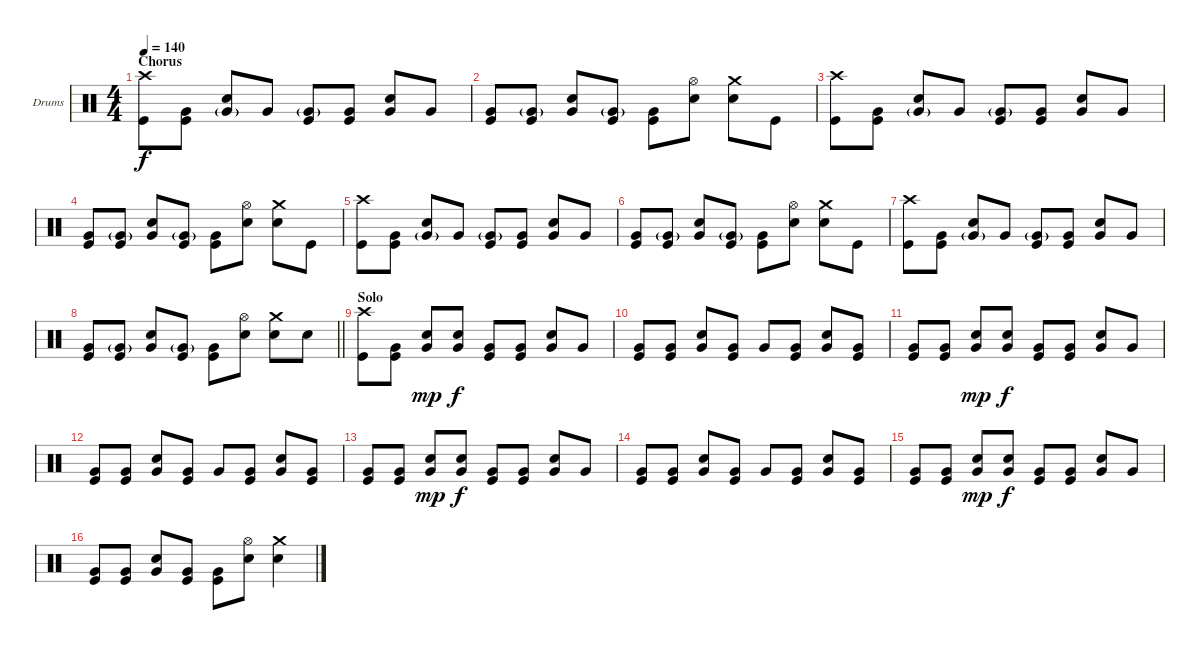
\bracketExtendMode groupsimilarinstruments
\firstSystemTrackNameOrientation horizontal
\otherSystemsTrackNameOrientation horizontal
\track ("Drumkit" "Drums") {instrument percussion}
\staff {score}
\articulation defaults
\ts (4 4)
\section ("" "Chorus")
\tempo 140
\clef neutral
\ks c
("Crash high (hit)" "Kick (hit)").8{dy f} ("Very Low Tom (hit)" "Kick (hit)").8 ("Very Low Tom (hit)"{g} "Snare (hit) 2").8 "Very Low Tom (hit)".8 ("Very Low Tom (hit)"{g} "Kick (hit)").8 ("Very Low Tom (hit)" "Kick (hit)").8 ("Very Low Tom (hit)" "Snare (hit) 2").8 "Very Low Tom (hit)".8 |
("Very Low Tom (hit)" "Kick (hit)").8 ("Very Low Tom (hit)"{g} "Kick (hit)").8 ("Very Low Tom (hit)" "Snare (hit) 2").8 ("Very Low Tom (hit)"{g} "Kick (hit)").8 ("Very Low Tom (hit)" "Kick (hit)").8 ("Hi-Hat (open)" "Snare (hit) 2").8 ("Crash medium (hit)" "Snare (hit) 2").8 "Kick (hit)".8 |
("Crash high (hit)" "Kick (hit)").8 ("Very Low Tom (hit)" "Kick (hit)").8 ("Very Low Tom (hit)"{g} "Snare (hit) 2").8 "Very Low Tom (hit)".8 ("Very Low Tom (hit)"{g} "Kick (hit)").8 ("Very Low Tom (hit)" "Kick (hit)").8 ("Very Low Tom (hit)" "Snare (hit) 2").8 "Very Low Tom (hit)".8 |
("Very Low Tom (hit)" "Kick (hit)").8 ("Very Low Tom (hit)"{g} "Kick (hit)").8 ("Very Low Tom (hit)" "Snare (hit) 2").8 ("Very Low Tom (hit)"{g} "Kick (hit)").8 ("Very Low Tom (hit)" "Kick (hit)").8 ("Hi-Hat (open)" "Snare (hit) 2").8 ("Crash medium (hit)" "Snare (hit) 2").8 "Kick (hit)".8 |
("Crash high (hit)" "Kick (hit)").8 ("Very Low Tom (hit)" "Kick (hit)").8 ("Very Low Tom (hit)"{g} "Snare (hit) 2").8 "Very Low Tom (hit)".8 ("Very Low Tom (hit)"{g} "Kick (hit)").8 ("Very Low Tom (hit)" "Kick (hit)").8 ("Very Low Tom (hit)" "Snare (hit) 2").8 "Very Low Tom (hit)".8 |
("Very Low Tom (hit)" "Kick (hit)").8 ("Very Low Tom (hit)"{g} "Kick (hit)").8 ("Very Low Tom (hit)" "Snare (hit) 2").8 ("Very Low Tom (hit)"{g} "Kick (hit)").8 ("Very Low Tom (hit)" "Kick (hit)").8 ("Hi-Hat (open)" "Snare (hit) 2").8 ("Crash medium (hit)" "Snare (hit) 2").8 "Kick (hit)".8 |
("Crash high (hit)" "Kick (hit)").8 ("Very Low Tom (hit)" "Kick (hit)").8 ("Very Low Tom (hit)"{g} "Snare (hit) 2").8 "Very Low Tom (hit)".8 ("Very Low Tom (hit)"{g} "Kick (hit)").8 ("Very Low Tom (hit)" "Kick (hit)").8 ("Very Low Tom (hit)" "Snare (hit) 2").8 "Very Low Tom (hit)".8 |
\barLineRight lightlight
("Very Low Tom (hit)" "Kick (hit)").8 ("Very Low Tom (hit)"{g} "Kick (hit)").8 ("Very Low Tom (hit)" "Snare (hit) 2").8 ("Very Low Tom (hit)"{g} "Kick (hit)").8 ("Very Low Tom (hit)" "Kick (hit)").8 ("Hi-Hat (open)" "Snare (hit) 2").8 ("Crash medium (hit)" "Snare (hit) 2").8 "Snare (hit) 2".8 |
\section ("" "Solo")
("Crash high (hit)" "Kick (hit)").8 ("Very Low Tom (hit)" "Kick (hit)").8 ("Very Low Tom (hit)" "Snare (hit) 2").8{dy mp} ("Very Low Tom (hit)" "Snare (hit) 2").8{dy f} ("Very Low Tom (hit)" "Kick (hit)").8 ("Very Low Tom (hit)" "Kick (hit)").8 ("Very Low Tom (hit)" "Snare (hit) 2").8 "Very Low Tom (hit)".8 |
("Very Low Tom (hit)" "Kick (hit)").8 ("Very Low Tom (hit)" "Kick (hit)").8 ("Very Low Tom (hit)" "Snare (hit) 2").8 ("Very Low Tom (hit)" "Kick (hit)").8 "Very Low Tom (hit)".8 ("Very Low Tom (hit)" "Kick (hit)").8 ("Very Low Tom (hit)" "Snare (hit) 2").8 ("Very Low Tom (hit)" "Kick (hit)").8 |
("Very Low Tom (hit)" "Kick (hit)").8 ("Very Low Tom (hit)" "Kick (hit)").8 ("Very Low Tom (hit)" "Snare (hit) 2").8{dy mp} ("Very Low Tom (hit)" "Snare (hit) 2").8{dy f} ("Very Low Tom (hit)" "Kick (hit)").8 ("Very Low Tom (hit)" "Kick (hit)").8 ("Very Low Tom (hit)" "Snare (hit) 2").8 "Very Low Tom (hit)".8 |
("Very Low Tom (hit)" "Kick (hit)").8 ("Very Low Tom (hit)" "Kick (hit)").8 ("Very Low Tom (hit)" "Snare (hit) 2").8 ("Very Low Tom (hit)" "Kick (hit)").8 "Very Low Tom (hit)".8 ("Very Low Tom (hit)" "Kick (hit)").8 ("Very Low Tom (hit)" "Snare (hit) 2").8 ("Very Low Tom (hit)" "Kick (hit)").8 |
("Very Low Tom (hit)" "Kick (hit)").8 ("Very Low Tom (hit)" "Kick (hit)").8 ("Very Low Tom (hit)" "Snare (hit) 2").8{dy mp} ("Very Low Tom (hit)" "Snare (hit) 2").8{dy f} ("Very Low Tom (hit)" "Kick (hit)").8 ("Very Low Tom (hit)" "Kick (hit)").8 ("Very Low Tom (hit)" "Snare (hit) 2").8 "Very Low Tom (hit)".8 |
("Very Low Tom (hit)" "Kick (hit)").8 ("Very Low Tom (hit)" "Kick (hit)").8 ("Very Low Tom (hit)" "Snare (hit) 2").8 ("Very Low Tom (hit)" "Kick (hit)").8 "Very Low Tom (hit)".8 ("Very Low Tom (hit)" "Kick (hit)").8 ("Very Low Tom (hit)" "Snare (hit) 2").8 ("Very Low Tom (hit)" "Kick (hit)").8 |
("Very Low Tom (hit)" "Kick (hit)").8 ("Very Low Tom (hit)" "Kick (hit)").8 ("Very Low Tom (hit)" "Snare (hit) 2").8{dy mp} ("Very Low Tom (hit)" "Snare (hit) 2").8{dy f} ("Very Low Tom (hit)" "Kick (hit)").8 ("Very Low Tom (hit)" "Kick (hit)").8 ("Very Low Tom (hit)" "Snare (hit) 2").8 "Very Low Tom (hit)".8 |
("Very Low Tom (hit)" "Kick (hit)").8 ("Very Low Tom (hit)" "Kick (hit)").8 ("Very Low Tom (hit)" "Snare (hit) 2").8 ("Very Low Tom (hit)" "Kick (hit)").8 ("Very Low Tom (hit)" "Kick (hit)").8 ("Hi-Hat (open)" "Snare (hit) 2").8 ("Crash medium (hit)" "Snare (hit) 2").4
